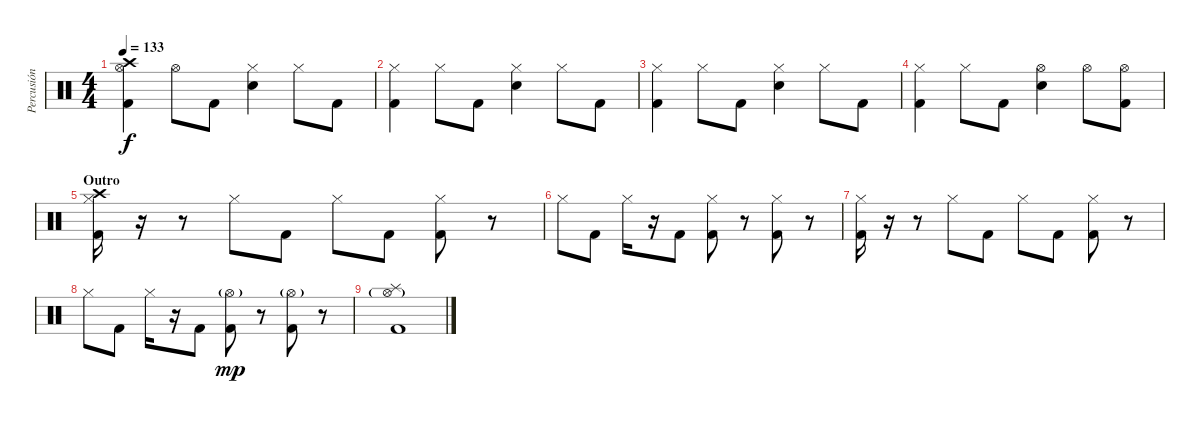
\track ("Percusión" "Percusión") {instrument percussion}
\staff {score}
\articulation defaults
\ts (4 4)
\tempo 133
\clef neutral
\ks c
("Crash high (hit)" "Hi-Hat (open)" "Kick (hit) 2").4{dy f} "Hi-Hat (open)".8 "Kick (hit) 2".8 ("Electric Snare (hit)" "Hi-Hat (closed)").4 "Hi-Hat (closed)".8 "Kick (hit) 2".8 |
("Hi-Hat (closed)" "Kick (hit) 2").4 "Hi-Hat (closed)".8 "Kick (hit) 2".8 ("Electric Snare (hit)" "Hi-Hat (closed)").4 "Hi-Hat (closed)".8 "Kick (hit) 2".8 |
("Hi-Hat (closed)" "Kick (hit) 2").4 "Hi-Hat (closed)".8 "Kick (hit) 2".8 ("Electric Snare (hit)" "Hi-Hat (closed)").4 "Hi-Hat (closed)".8 "Kick (hit) 2".8 |
("Hi-Hat (closed)" "Kick (hit) 2").4 "Hi-Hat (closed)".8 "Kick (hit) 2".8 ("Electric Snare (hit)" "Hi-Hat (open)").4 "Hi-Hat (open)".8 ("Hi-Hat (open)" "Kick (hit) 2").8 |
\section ("" "Outro")
("Crash high (hit)" "Hi-Hat (closed)" "Kick (hit) 2").16 r.16 r.8 "Hi-Hat (closed)".8 "Kick (hit) 2".8 "Hi-Hat (closed)".8 "Kick (hit) 2".8 ("Hi-Hat (closed)" "Kick (hit) 2").8 r.8 |
"Hi-Hat (closed)".8 "Kick (hit) 2".8 "Hi-Hat (closed)".16 r.16 "Kick (hit) 2".8 ("Hi-Hat (closed)" "Kick (hit) 2").8 r.8 ("Hi-Hat (closed)" "Kick (hit) 2").8 r.8 |
("Hi-Hat (closed)" "Kick (hit) 2").16 r.16 r.8 "Hi-Hat (closed)".8 "Kick (hit) 2".8 "Hi-Hat (closed)".8 "Kick (hit) 2".8 ("Hi-Hat (closed)" "Kick (hit) 2").8 r.8 |
"Hi-Hat (closed)".8 "Kick (hit) 2".8 "Hi-Hat (closed)".16 r.16 "Kick (hit) 2".8 ("Hi-Hat (open)"{g} "Kick (hit) 2").8{dy mp} r.8 ("Hi-Hat (open)"{g} "Kick (hit) 2").8 r.8 |
("Splash (hit)" "Hi-Hat (open)"{g} "Kick (hit) 2").1
